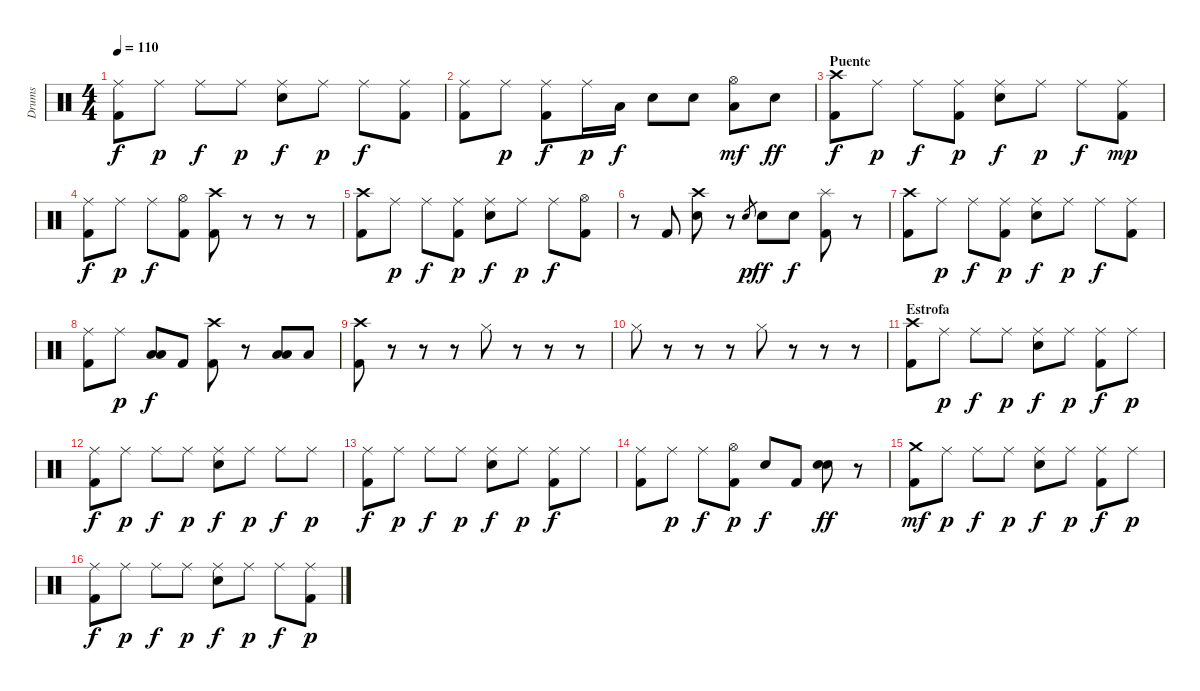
\track ("Drums" "Drums") {instrument percussion}
\staff {score}
\articulation defaults
\ts (4 4)
\tempo 110
\clef neutral
\ks c
("Ride (middle)" "Kick (hit) 2").8{dy f} "Ride (middle)".8{dy p} "Ride (middle)".8{dy f} "Ride (middle)".8{dy p} ("Ride (middle)" "Snare (hit) 2").8{dy f} "Ride (middle)".8{dy p} "Ride (middle)".8{dy f} ("Ride (middle)" "Kick (hit) 2").8 |
("Ride (middle)" "Kick (hit) 2").8 "Ride (middle)".8{dy p} ("Ride (middle)" "Kick (hit) 2").8{dy f} "Ride (middle)".16{dy p} "Low Floor Tom (hit)".16{dy f} "Snare (hit) 2".8 "Snare (hit) 2".8 ("Hi-Hat (open)" "Low Floor Tom (hit)").8{dy mf} "Snare (hit) 2".8{dy ff} |
\section ("" "Puente")
("Crash high (hit)" "Kick (hit) 2").8{dy f} "Ride (middle)".8{dy p} "Ride (middle)".8{dy f} ("Ride (middle)" "Kick (hit) 2").8{dy p} ("Ride (middle)" "Snare (hit) 2").8{dy f} "Ride (middle)".8{dy p} "Ride (middle)".8{dy f} ("Ride (middle)" "Kick (hit) 2").8{dy mp} |
("Ride (middle)" "Kick (hit) 2").8{dy f} "Ride (middle)".8{dy p} "Ride (middle)".8{dy f} ("Hi-Hat (open)" "Kick (hit) 2").8 ("Crash high (hit)" "Kick (hit) 2").8 r.8 r.8 r.8 |
("Crash high (hit)" "Kick (hit) 2").8 "Ride (middle)".8{dy p} "Ride (middle)".8{dy f} ("Ride (middle)" "Kick (hit) 2").8{dy p} ("Ride (middle)" "Snare (hit) 2").8{dy f} "Ride (middle)".8{dy p} "Ride (middle)".8{dy f} ("Hi-Hat (open)" "Kick (hit) 2").8 |
r.8 "Kick (hit) 2".8 ("Crash high (hit)" "Snare (hit) 2").8 r.8 "Snare (hit) 2".8{gr dy p} "Snare (hit) 2".8{dy ff} "Snare (hit) 2".8{dy f} ("Splash (hit)" "Kick (hit) 2").8 r.8 |
("Crash high (hit)" "Kick (hit) 2").8 "Ride (middle)".8{dy p} "Ride (middle)".8{dy f} ("Ride (middle)" "Kick (hit) 2").8{dy p} ("Ride (middle)" "Snare (hit) 2").8{dy f} "Ride (middle)".8{dy p} "Ride (middle)".8{dy f} ("Ride (middle)" "Kick (hit) 2").8 |
("Ride (middle)" "Kick (hit) 2").8 "Ride (middle)".8{dy p} ("Low Tom (hit)" "Low Floor Tom (hit)").8{bd 60 dy f} "Kick (hit) 2".8 ("Crash high (hit)" "Kick (hit) 2").8 r.8 ("Low Tom (hit)" "Low Floor Tom (hit)").8{bd 60} "Low Tom (hit)".8 |
("Crash high (hit)" "Kick (hit) 2").8 r.8 r.8 r.8 "Hi-Hat (closed)".8 r.8 r.8 r.8 |
"Hi-Hat (closed)".8 r.8 r.8 r.8 "Hi-Hat (closed)".8 r.8 r.8 r.8 |
\section ("" "Estrofa")
("Crash high (hit)" "Kick (hit) 2").8{volume 13} "Ride (middle)".8{dy p} "Ride (middle)".8{dy f} "Ride (middle)".8{dy p} ("Ride (middle)" "Snare (hit) 2").8{dy f} "Ride (middle)".8{dy p} ("Ride (middle)" "Kick (hit) 2").8{dy f} "Ride (middle)".8{dy p} |
("Ride (middle)" "Kick (hit) 2").8{dy f} "Ride (middle)".8{dy p} "Ride (middle)".8{dy f} "Ride (middle)".8{dy p} ("Ride (middle)" "Snare (hit) 2").8{dy f} "Ride (middle)".8{dy p} "Ride (middle)".8{dy f} "Ride (middle)".8{dy p} |
("Ride (middle)" "Kick (hit) 2").8{dy f} "Ride (middle)".8{dy p} "Ride (middle)".8{dy f} "Ride (middle)".8{dy p} ("Ride (middle)" "Snare (hit) 2").8{dy f} "Ride (middle)".8{dy p} ("Ride (middle)" "Kick (hit) 2").8{dy f} "Ride (middle)".8 |
("Ride (middle)" "Kick (hit) 2").8 "Ride (middle)".8{dy p} "Ride (middle)".8{dy f} ("Hi-Hat (open)" "Kick (hit) 2").8{dy p} "Snare (hit) 2".8{dy f} "Kick (hit) 2".8 ("Snare (hit) 2" "Snare (hit) 2").8{bd 60 dy ff} r.8 |
("Crash medium (hit)" "Kick (hit) 2").8{dy mf volume 10} "Ride (middle)".8{dy p} "Ride (middle)".8{dy f} "Ride (middle)".8{dy p} ("Ride (middle)" "Snare (hit) 2").8{dy f} "Ride (middle)".8{dy p} ("Ride (middle)" "Kick (hit) 2").8{dy f} "Ride (middle)".8{dy p} |
("Ride (middle)" "Kick (hit) 2").8{dy f} "Ride (middle)".8{dy p} "Ride (middle)".8{dy f} "Ride (middle)".8{dy p} ("Ride (middle)" "Snare (hit) 2").8{dy f} "Ride (middle)".8{dy p} "Ride (middle)".8{dy f} ("Ride (middle)" "Kick (hit) 2").8{dy p}
